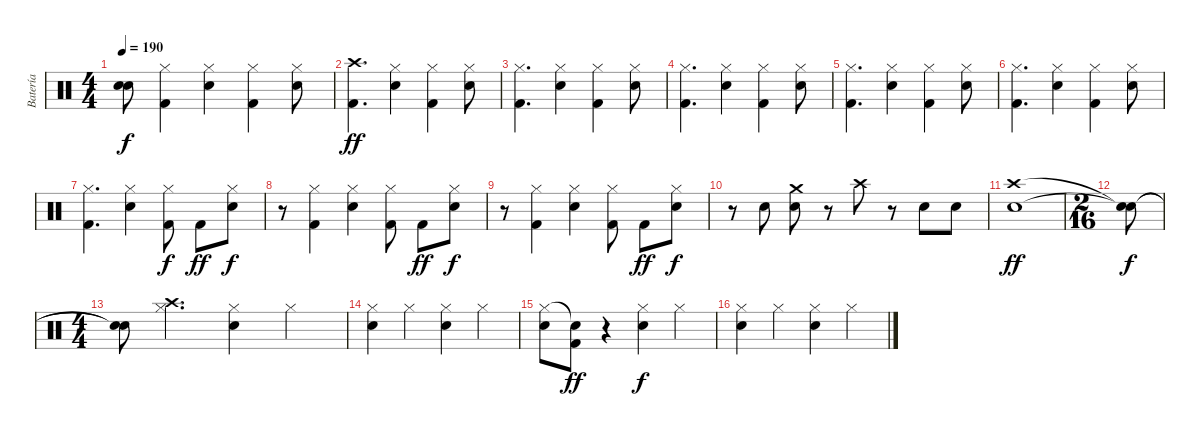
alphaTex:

\track ("Batería" "Batería") {instrument percussion}
\staff {score}
\articulation defaults
\ts (4 4)
\tempo 190
\clef neutral
\ks c
("Snare (hit)"{t} "Snare (hit)"{t}).8{dy f} ("Kick (hit) 2" "Hi-Hat (closed)").4 ("Electric Snare (hit)" "Hi-Hat (closed)").4 ("Kick (hit) 2" "Hi-Hat (closed)").4 ("Electric Snare (hit)" "Hi-Hat (closed)").8 |
("Crash high (hit)" "Kick (hit) 2").4{d dy ff} ("Electric Snare (hit)" "Hi-Hat (closed)").4 ("Kick (hit) 2" "Hi-Hat (closed)").4 ("Electric Snare (hit)" "Hi-Hat (closed)").8 |
("Kick (hit) 2" "Hi-Hat (closed)").4{d} ("Electric Snare (hit)" "Hi-Hat (closed)").4 ("Kick (hit) 2" "Hi-Hat (closed)").4 ("Electric Snare (hit)" "Hi-Hat (closed)").8 |
("Kick (hit) 2" "Hi-Hat (closed)").4{d} ("Electric Snare (hit)" "Hi-Hat (closed)").4 ("Kick (hit) 2" "Hi-Hat (closed)").4 ("Electric Snare (hit)" "Hi-Hat (closed)").8 |
("Kick (hit) 2" "Hi-Hat (closed)").4{d} ("Electric Snare (hit)" "Hi-Hat (closed)").4 ("Kick (hit) 2" "Hi-Hat (closed)").4 ("Electric Snare (hit)" "Hi-Hat (closed)").8 |
("Kick (hit) 2" "Hi-Hat (closed)").4{d} ("Electric Snare (hit)" "Hi-Hat (closed)").4 ("Kick (hit) 2" "Hi-Hat (closed)").4 ("Electric Snare (hit)" "Hi-Hat (closed)").8 |
("Kick (hit) 2" "Hi-Hat (closed)").4{d} ("Electric Snare (hit)" "Hi-Hat (closed)").4 ("Kick (hit) 2" "Hi-Hat (closed)").8{dy f} "Kick (hit) 2".8{dy ff} ("Electric Snare (hit)" "Hi-Hat (closed)").8{dy f} |
r.8 ("Kick (hit) 2" "Hi-Hat (closed)").4 ("Electric Snare (hit)" "Hi-Hat (closed)").4 ("Kick (hit) 2" "Hi-Hat (closed)").8 "Kick (hit) 2".8{dy ff} ("Electric Snare (hit)" "Hi-Hat (closed)").8{dy f} |
r.8 ("Kick (hit) 2" "Hi-Hat (closed)").4 ("Electric Snare (hit)" "Hi-Hat (closed)").4 ("Kick (hit) 2" "Hi-Hat (closed)").8 "Kick (hit) 2".8{dy ff} ("Electric Snare (hit)" "Hi-Hat (closed)").8{dy f} |
r.8 "Electric Snare (hit)".8 ("Crash medium (hit)" "Electric Snare (hit)").8 r.8 "Crash high (hit)".8 r.8 "Electric Snare (hit)".8 "Electric Snare (hit)".8 |
("Crash high (hit)" "Electric Snare (hit)").1{dy ff} |
\ts (2 16)
("Snare (hit)"{t} "Snare (hit)"{t}).8{dy f} |
\ts (4 4)
("Snare (hit)"{t} "Snare (hit)"{t}).8 ("Crash high (hit)" "Hi-Hat (closed)").4{d} ("Electric Snare (hit)" "Hi-Hat (closed)").4 "Hi-Hat (closed)".4 |
("Electric Snare (hit)" "Hi-Hat (closed)").4 "Hi-Hat (closed)".4 ("Electric Snare (hit)" "Hi-Hat (closed)").4 "Hi-Hat (closed)".4 |
("Electric Snare (hit)" "Hi-Hat (closed)").8 ("Kick (hit) 2" "Snare (hit)"{t}).8{dy ff} r.4 ("Electric Snare (hit)" "Hi-Hat (closed)").4{dy f} "Hi-Hat (closed)".4 |
("Electric Snare (hit)" "Hi-Hat (closed)").4 "Hi-Hat (closed)".4 ("Electric Snare (hit)" "Hi-Hat (closed)").4 "Hi-Hat (closed)".4
